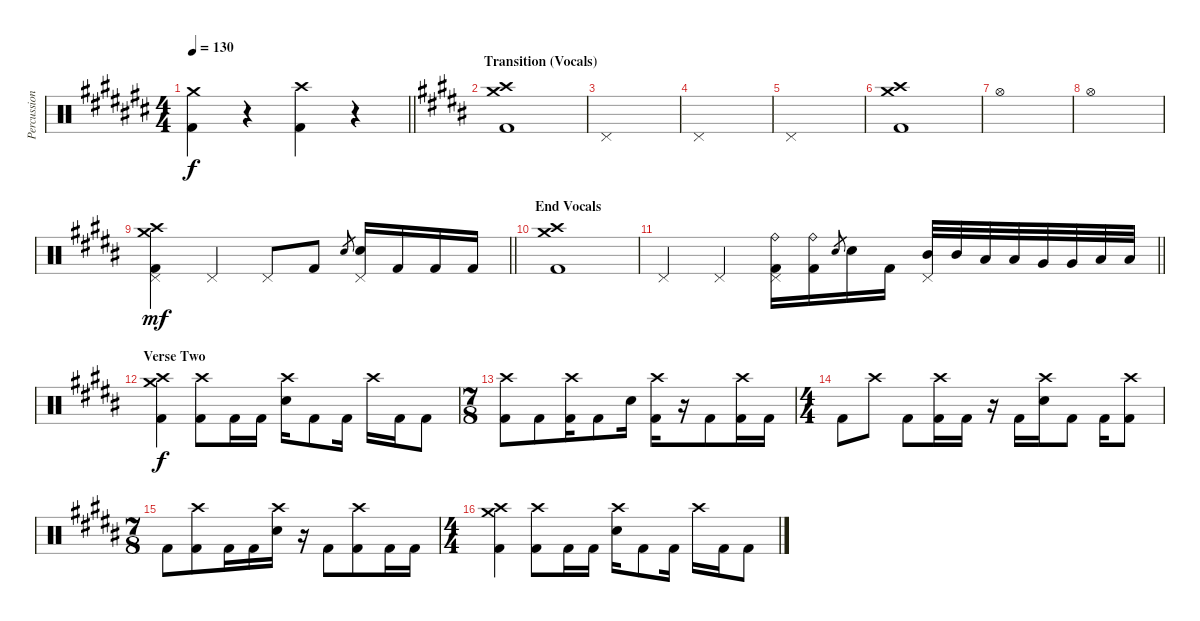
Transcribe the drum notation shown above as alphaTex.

\track ("Percussion" "Percussion") {instrument percussion}
\staff {score}
\articulation defaults
\ts (4 4)
\tempo 130
\clef neutral
\barLineRight lightlight
\ks a#minor
("Crash medium (hit)" "Kick (hit) 2").4{dy f} r.4 ("Crash high (hit)" "Kick (hit) 2").4 r.4 |
\section ("" "Transition (Vocals)")
\ks g#minor
("Crash medium (hit)" "Crash high (hit)" "Kick (hit) 2").1 |
"Pedal Hi-Hat (hit)".1 |
"Pedal Hi-Hat (hit)".1 |
"Pedal Hi-Hat (hit)".1 |
("Crash medium (hit)" "Crash high (hit)" "Kick (hit) 2").1 |
"Hi-Hat (open)".1 |
"Hi-Hat (open)".1 |
\barLineRight lightlight
("Crash medium (hit)" "Crash high (hit)" "Pedal Hi-Hat (hit)" "Kick (hit) 2").4{dy mf} "Pedal Hi-Hat (hit)".4 "Pedal Hi-Hat (hit)".8 "Kick (hit) 2".8 "Electric Snare (hit)".8{gr} ("Electric Snare (hit)" "Pedal Hi-Hat (hit)").16 "Kick (hit) 2".16 "Kick (hit) 2".16 "Kick (hit) 2".16 |
\section ("" "End Vocals")
("Crash high (hit)" "Crash medium (hit)" "Kick (hit) 2").1 |
\barLineRight lightlight "Pedal Hi-Hat (hit)".4 "Pedal Hi-Hat (hit)".4
("Pedal Hi-Hat (hit)" "Ride (bell)" "Kick (hit) 2").16 ("Ride (bell)" "Kick (hit) 2").16 "Electric Snare (hit)".8{gr} "Electric Snare (hit)".16 "Kick (hit) 2".16 ("Pedal Hi-Hat (hit)" "Mid Tom (hit)").32 "Mid Tom (hit)".32 "Low Tom (hit)".32 "Low Tom (hit)".32 "Very Low Tom (hit)".32 "Very Low Tom (hit)".32 "Low Floor Tom (hit)".32 "Low Floor Tom (hit)".32 |
\section ("" "Verse Two")
("Crash high (hit)" "Crash medium (hit)" "Kick (hit) 2").4{dy f} ("Crash high (hit)" "Kick (hit) 2").8 "Kick (hit) 2".16 "Kick (hit) 2".16 ("Crash high (hit)" "Electric Snare (hit)").16 "Kick (hit) 2".8 "Kick (hit) 2".16 "Crash high (hit)".16 "Kick (hit) 2".16 "Kick (hit) 2".8 |
\ts (7 8)
("Crash high (hit)" "Kick (hit) 2").8 "Kick (hit) 2".8 ("Crash high (hit)" "Kick (hit) 2").16 "Kick (hit) 2".8 "Electric Snare (hit)".16 ("Crash high (hit)" "Kick (hit) 2").16 r.16 "Kick (hit) 2".8 ("Crash high (hit)" "Kick (hit) 2").16 "Kick (hit) 2".16 |
\ts (4 4)
"Kick (hit) 2".8 "Crash high (hit)".8 "Kick (hit) 2".8 ("Crash high (hit)" "Kick (hit) 2").16 "Kick (hit) 2".16 r.16 "Kick (hit) 2".16 ("Crash high (hit)" "Electric Snare (hit)").16 "Kick (hit) 2".8 "Kick (hit) 2".16 ("Crash high (hit)" "Kick (hit) 2").8 |
\ts (7 8)
"Kick (hit) 2".8 ("Crash high (hit)" "Kick (hit) 2").8 "Kick (hit) 2".16 "Kick (hit) 2".16 ("Crash high (hit)" "Electric Snare (hit)").16 r.16 "Kick (hit) 2".8 ("Crash high (hit)" "Kick (hit) 2").8 "Kick (hit) 2".16 "Kick (hit) 2".16 |
\ts (4 4)
("Crash high (hit)" "Crash medium (hit)" "Kick (hit) 2").4 ("Crash high (hit)" "Kick (hit) 2").8 "Kick (hit) 2".16 "Kick (hit) 2".16 ("Crash high (hit)" "Electric Snare (hit)").16 "Kick (hit) 2".8 "Kick (hit) 2".16 "Crash high (hit)".16 "Kick (hit) 2".16 "Kick (hit) 2".8
